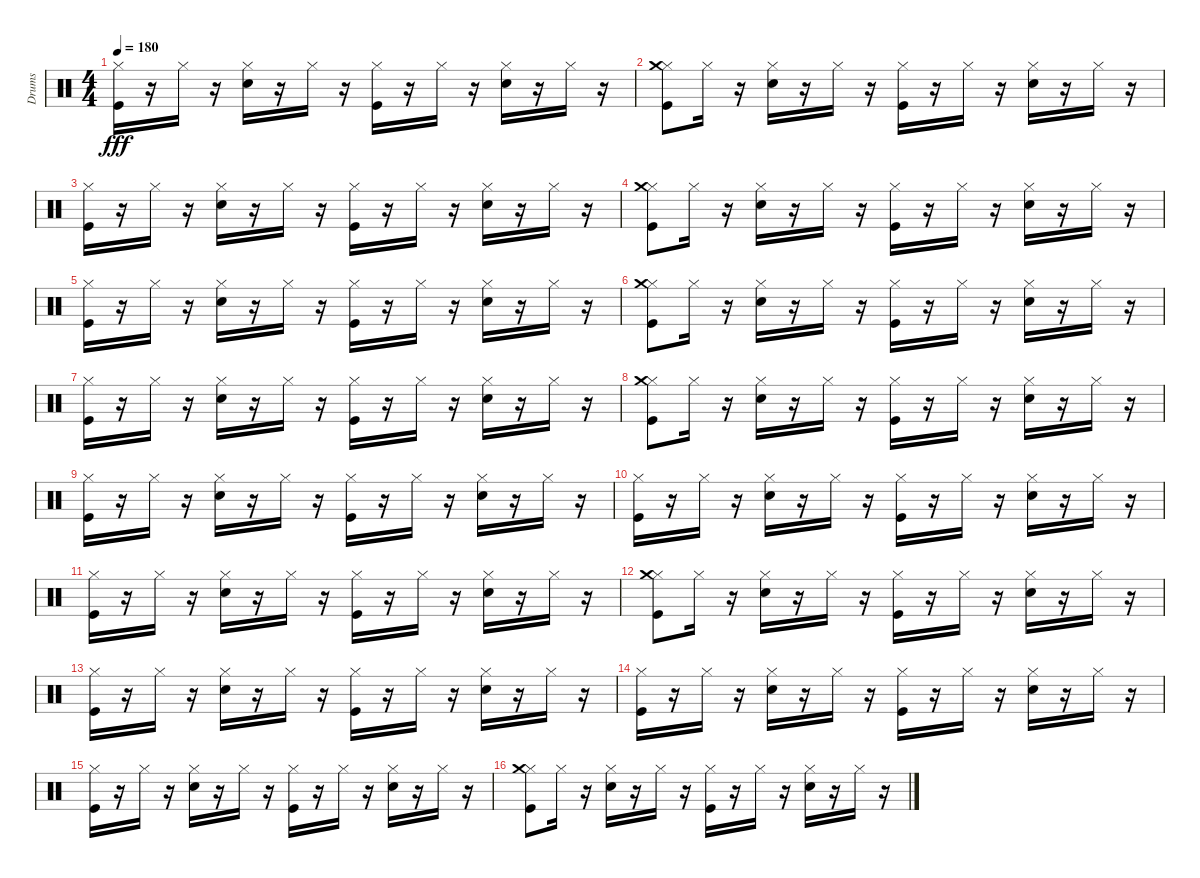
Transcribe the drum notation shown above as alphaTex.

\track ("Drums" "Drums") {instrument percussion}
\staff {score}
\articulation defaults
\ts (4 4)
\tempo 180
\clef neutral
\ks c
("Hi-Hat (closed)" "Kick (hit)").16{dy fff} r.16 "Hi-Hat (closed)".16 r.16 ("Hi-Hat (closed)" "Snare (hit) 2").16 r.16 "Hi-Hat (closed)".16 r.16 ("Hi-Hat (closed)" "Kick (hit)").16 r.16 "Hi-Hat (closed)".16 r.16 ("Hi-Hat (closed)" "Snare (hit) 2").16 r.16 "Hi-Hat (closed)".16 r.16 |
("Kick (hit)" "Hi-Hat (closed)" "Crash medium (hit)").8 "Hi-Hat (closed)".16 r.16 ("Snare (hit) 2" "Hi-Hat (closed)").16 r.16 "Hi-Hat (closed)".16 r.16 ("Kick (hit)" "Hi-Hat (closed)").16 r.16 "Hi-Hat (closed)".16 r.16 ("Snare (hit) 2" "Hi-Hat (closed)").16 r.16 "Hi-Hat (closed)".16 r.16 |
("Hi-Hat (closed)" "Kick (hit)").16 r.16 "Hi-Hat (closed)".16 r.16 ("Hi-Hat (closed)" "Snare (hit) 2").16 r.16 "Hi-Hat (closed)".16 r.16 ("Hi-Hat (closed)" "Kick (hit)").16 r.16 "Hi-Hat (closed)".16 r.16 ("Hi-Hat (closed)" "Snare (hit) 2").16 r.16 "Hi-Hat (closed)".16 r.16 |
("Kick (hit)" "Hi-Hat (closed)" "Crash medium (hit)").8 "Hi-Hat (closed)".16 r.16 ("Snare (hit) 2" "Hi-Hat (closed)").16 r.16 "Hi-Hat (closed)".16 r.16 ("Kick (hit)" "Hi-Hat (closed)").16 r.16 "Hi-Hat (closed)".16 r.16 ("Snare (hit) 2" "Hi-Hat (closed)").16 r.16 "Hi-Hat (closed)".16 r.16 |
("Hi-Hat (closed)" "Kick (hit)").16 r.16 "Hi-Hat (closed)".16 r.16 ("Hi-Hat (closed)" "Snare (hit) 2").16 r.16 "Hi-Hat (closed)".16 r.16 ("Hi-Hat (closed)" "Kick (hit)").16 r.16 "Hi-Hat (closed)".16 r.16 ("Hi-Hat (closed)" "Snare (hit) 2").16 r.16 "Hi-Hat (closed)".16 r.16 |
("Kick (hit)" "Hi-Hat (closed)" "Crash medium (hit)").8 "Hi-Hat (closed)".16 r.16 ("Snare (hit) 2" "Hi-Hat (closed)").16 r.16 "Hi-Hat (closed)".16 r.16 ("Kick (hit)" "Hi-Hat (closed)").16 r.16 "Hi-Hat (closed)".16 r.16 ("Snare (hit) 2" "Hi-Hat (closed)").16 r.16 "Hi-Hat (closed)".16 r.16 |
("Hi-Hat (closed)" "Kick (hit)").16 r.16 "Hi-Hat (closed)".16 r.16 ("Hi-Hat (closed)" "Snare (hit) 2").16 r.16 "Hi-Hat (closed)".16 r.16 ("Hi-Hat (closed)" "Kick (hit)").16 r.16 "Hi-Hat (closed)".16 r.16 ("Hi-Hat (closed)" "Snare (hit) 2").16 r.16 "Hi-Hat (closed)".16 r.16 |
("Kick (hit)" "Hi-Hat (closed)" "Crash medium (hit)").8 "Hi-Hat (closed)".16 r.16 ("Snare (hit) 2" "Hi-Hat (closed)").16 r.16 "Hi-Hat (closed)".16 r.16 ("Kick (hit)" "Hi-Hat (closed)").16 r.16 "Hi-Hat (closed)".16 r.16 ("Snare (hit) 2" "Hi-Hat (closed)").16 r.16 "Hi-Hat (closed)".16 r.16 |
("Hi-Hat (closed)" "Kick (hit)").16 r.16 "Hi-Hat (closed)".16 r.16 ("Hi-Hat (closed)" "Snare (hit) 2").16 r.16 "Hi-Hat (closed)".16 r.16 ("Hi-Hat (closed)" "Kick (hit)").16 r.16 "Hi-Hat (closed)".16 r.16 ("Hi-Hat (closed)" "Snare (hit) 2").16 r.16 "Hi-Hat (closed)".16 r.16 |
("Kick (hit)" "Hi-Hat (closed)").16 r.16 "Hi-Hat (closed)".16 r.16 ("Snare (hit) 2" "Hi-Hat (closed)").16 r.16 "Hi-Hat (closed)".16 r.16 ("Kick (hit)" "Hi-Hat (closed)").16 r.16 "Hi-Hat (closed)".16 r.16 ("Snare (hit) 2" "Hi-Hat (closed)").16 r.16 "Hi-Hat (closed)".16 r.16 |
("Hi-Hat (closed)" "Kick (hit)").16 r.16 "Hi-Hat (closed)".16 r.16 ("Hi-Hat (closed)" "Snare (hit) 2").16 r.16 "Hi-Hat (closed)".16 r.16 ("Hi-Hat (closed)" "Kick (hit)").16 r.16 "Hi-Hat (closed)".16 r.16 ("Hi-Hat (closed)" "Snare (hit) 2").16 r.16 "Hi-Hat (closed)".16 r.16 |
("Kick (hit)" "Hi-Hat (closed)" "Crash medium (hit)").8 "Hi-Hat (closed)".16 r.16 ("Snare (hit) 2" "Hi-Hat (closed)").16 r.16 "Hi-Hat (closed)".16 r.16 ("Kick (hit)" "Hi-Hat (closed)").16 r.16 "Hi-Hat (closed)".16 r.16 ("Snare (hit) 2" "Hi-Hat (closed)").16 r.16 "Hi-Hat (closed)".16 r.16 |
("Hi-Hat (closed)" "Kick (hit)").16 r.16 "Hi-Hat (closed)".16 r.16 ("Hi-Hat (closed)" "Snare (hit) 2").16 r.16 "Hi-Hat (closed)".16 r.16 ("Hi-Hat (closed)" "Kick (hit)").16 r.16 "Hi-Hat (closed)".16 r.16 ("Hi-Hat (closed)" "Snare (hit) 2").16 r.16 "Hi-Hat (closed)".16 r.16 |
("Kick (hit)" "Hi-Hat (closed)").16 r.16 "Hi-Hat (closed)".16 r.16 ("Snare (hit) 2" "Hi-Hat (closed)").16 r.16 "Hi-Hat (closed)".16 r.16 ("Kick (hit)" "Hi-Hat (closed)").16 r.16 "Hi-Hat (closed)".16 r.16 ("Snare (hit) 2" "Hi-Hat (closed)").16 r.16 "Hi-Hat (closed)".16 r.16 |
("Hi-Hat (closed)" "Kick (hit)").16 r.16 "Hi-Hat (closed)".16 r.16 ("Hi-Hat (closed)" "Snare (hit) 2").16 r.16 "Hi-Hat (closed)".16 r.16 ("Hi-Hat (closed)" "Kick (hit)").16 r.16 "Hi-Hat (closed)".16 r.16 ("Hi-Hat (closed)" "Snare (hit) 2").16 r.16 "Hi-Hat (closed)".16 r.16 |
("Kick (hit)" "Hi-Hat (closed)" "Crash medium (hit)").8 "Hi-Hat (closed)".16 r.16 ("Snare (hit) 2" "Hi-Hat (closed)").16 r.16 "Hi-Hat (closed)".16 r.16 ("Kick (hit)" "Hi-Hat (closed)").16 r.16 "Hi-Hat (closed)".16 r.16 ("Snare (hit) 2" "Hi-Hat (closed)").16 r.16 "Hi-Hat (closed)".16 r.16
